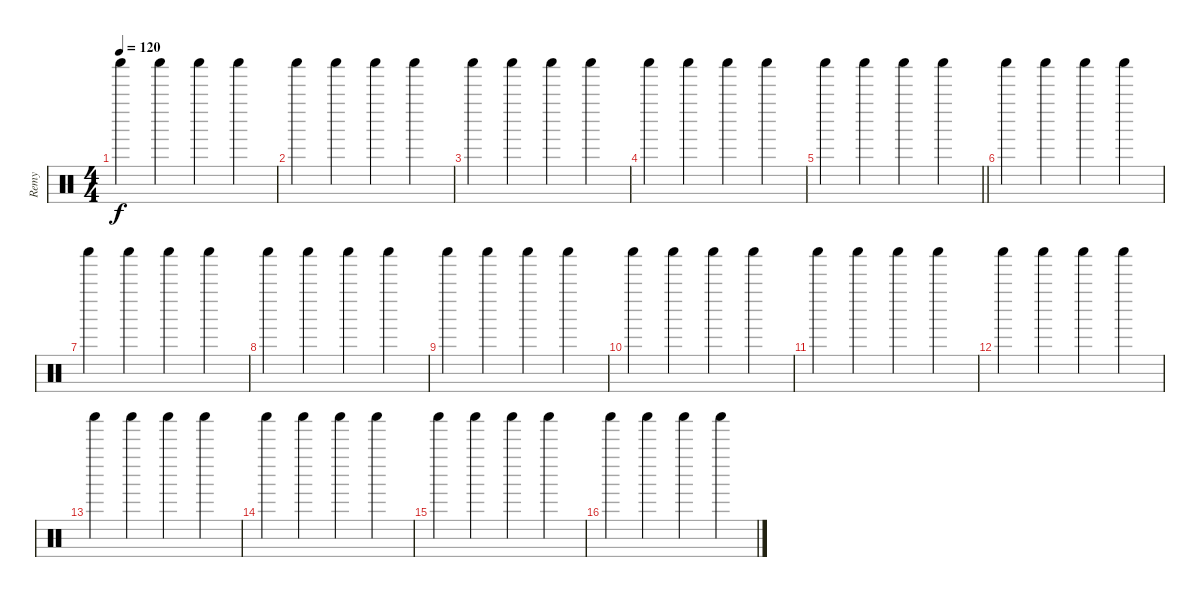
\track ("Remy" "Remy") {instrument percussion}
\staff {score}
\articulation defaults
\ts (4 4)
\tempo 120
\clef neutral
\ks c "Shaker (hit)".4{dy f} "Shaker (hit)".4 "Shaker (hit)".4 "Shaker (hit)".4
|
"Shaker (hit)".4 "Shaker (hit)".4 "Shaker (hit)".4 "Shaker (hit)".4 |
"Shaker (hit)".4 "Shaker (hit)".4 "Shaker (hit)".4 "Shaker (hit)".4 |
"Shaker (hit)".4 "Shaker (hit)".4 "Shaker (hit)".4 "Shaker (hit)".4 |
\barLineRight lightlight "Shaker (hit)".4 "Shaker (hit)".4 "Shaker (hit)".4 "Shaker (hit)".4
|
"Shaker (hit)".4 "Shaker (hit)".4 "Shaker (hit)".4 "Shaker (hit)".4 |
"Shaker (hit)".4 "Shaker (hit)".4 "Shaker (hit)".4 "Shaker (hit)".4 |
"Shaker (hit)".4 "Shaker (hit)".4 "Shaker (hit)".4 "Shaker (hit)".4 |
"Shaker (hit)".4 "Shaker (hit)".4 "Shaker (hit)".4 "Shaker (hit)".4 |
"Shaker (hit)".4 "Shaker (hit)".4 "Shaker (hit)".4 "Shaker (hit)".4 |
"Shaker (hit)".4 "Shaker (hit)".4 "Shaker (hit)".4 "Shaker (hit)".4 |
"Shaker (hit)".4 "Shaker (hit)".4 "Shaker (hit)".4 "Shaker (hit)".4 |
"Shaker (hit)".4 "Shaker (hit)".4 "Shaker (hit)".4 "Shaker (hit)".4 |
"Shaker (hit)".4 "Shaker (hit)".4 "Shaker (hit)".4 "Shaker (hit)".4 |
"Shaker (hit)".4 "Shaker (hit)".4 "Shaker (hit)".4 "Shaker (hit)".4 |
"Shaker (hit)".4 "Shaker (hit)".4 "Shaker (hit)".4 "Shaker (hit)".4
